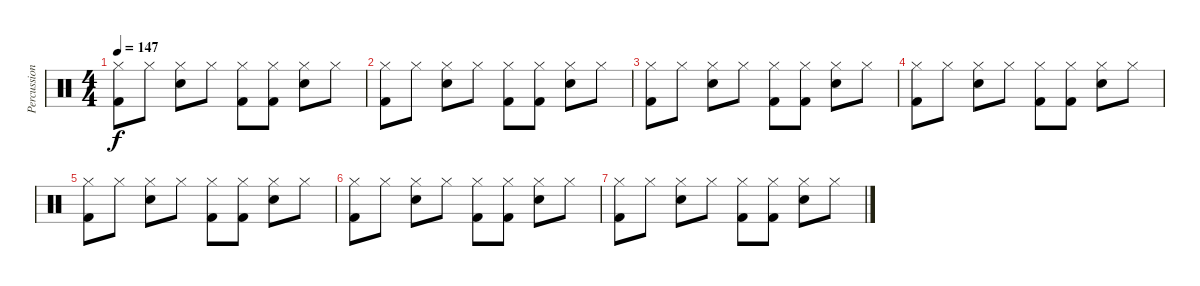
\track ("Percussion" "Percussion") {instrument percussion}
\staff {score}
\articulation defaults
\ts (4 4)
\tempo 147
\clef neutral
\ks c
("Hi-Hat (closed)" "Kick (hit) 2").8{dy f} "Hi-Hat (closed)".8 ("Hi-Hat (closed)" "Snare (hit) 2").8 "Hi-Hat (closed)".8 ("Hi-Hat (closed)" "Kick (hit) 2").8 ("Hi-Hat (closed)" "Kick (hit) 2").8 ("Hi-Hat (closed)" "Snare (hit) 2").8 "Hi-Hat (closed)".8 |
("Hi-Hat (closed)" "Kick (hit) 2").8 "Hi-Hat (closed)".8 ("Hi-Hat (closed)" "Snare (hit) 2").8 "Hi-Hat (closed)".8 ("Hi-Hat (closed)" "Kick (hit) 2").8 ("Hi-Hat (closed)" "Kick (hit) 2").8 ("Hi-Hat (closed)" "Snare (hit) 2").8 "Hi-Hat (closed)".8 |
("Hi-Hat (closed)" "Kick (hit) 2").8 "Hi-Hat (closed)".8 ("Hi-Hat (closed)" "Snare (hit) 2").8 "Hi-Hat (closed)".8 ("Hi-Hat (closed)" "Kick (hit) 2").8 ("Hi-Hat (closed)" "Kick (hit) 2").8 ("Hi-Hat (closed)" "Snare (hit) 2").8 "Hi-Hat (closed)".8 |
("Hi-Hat (closed)" "Kick (hit) 2").8 "Hi-Hat (closed)".8 ("Hi-Hat (closed)" "Snare (hit) 2").8 "Hi-Hat (closed)".8 ("Hi-Hat (closed)" "Kick (hit) 2").8 ("Hi-Hat (closed)" "Kick (hit) 2").8 ("Hi-Hat (closed)" "Snare (hit) 2").8 "Hi-Hat (closed)".8 |
("Hi-Hat (closed)" "Kick (hit) 2").8 "Hi-Hat (closed)".8 ("Hi-Hat (closed)" "Snare (hit) 2").8 "Hi-Hat (closed)".8 ("Hi-Hat (closed)" "Kick (hit) 2").8 ("Hi-Hat (closed)" "Kick (hit) 2").8 ("Hi-Hat (closed)" "Snare (hit) 2").8 "Hi-Hat (closed)".8 |
("Hi-Hat (closed)" "Kick (hit) 2").8 "Hi-Hat (closed)".8 ("Hi-Hat (closed)" "Snare (hit) 2").8 "Hi-Hat (closed)".8 ("Hi-Hat (closed)" "Kick (hit) 2").8 ("Hi-Hat (closed)" "Kick (hit) 2").8 ("Hi-Hat (closed)" "Snare (hit) 2").8 "Hi-Hat (closed)".8 |
("Hi-Hat (closed)" "Kick (hit) 2").8 "Hi-Hat (closed)".8 ("Hi-Hat (closed)" "Snare (hit) 2").8 "Hi-Hat (closed)".8 ("Hi-Hat (closed)" "Kick (hit) 2").8 ("Hi-Hat (closed)" "Kick (hit) 2").8 ("Hi-Hat (closed)" "Snare (hit) 2").8 "Hi-Hat (closed)".8
